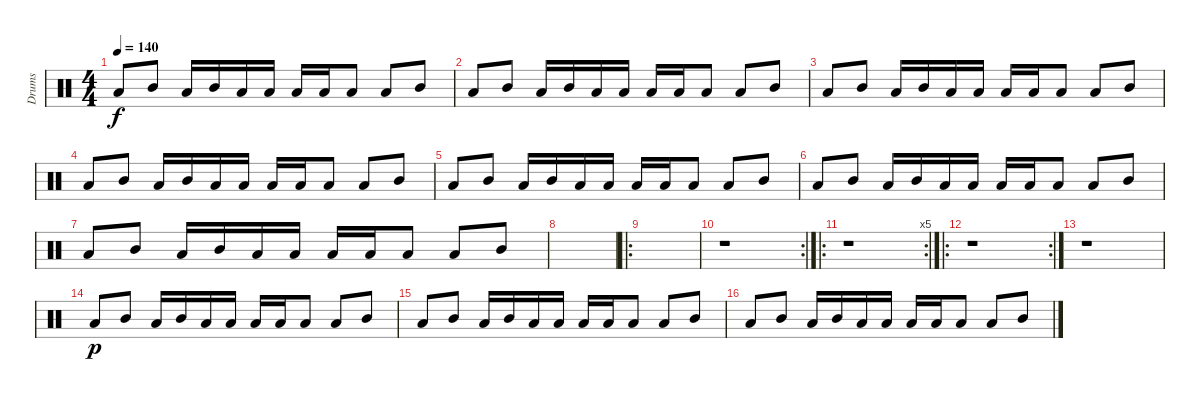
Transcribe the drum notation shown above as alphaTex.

\track ("Drums" "Drums") {instrument percussion}
\staff {score}
\articulation defaults
\ts (4 4)
\tempo 140
\clef neutral
\ks c "Low Tom (hit)".8{dy f} "Mid Tom (hit)".8 "Low Tom (hit)".16 "Mid Tom (hit)".16 "Low Tom (hit)".16 "Low Tom (hit)".16 "Low Tom (hit)".16 "Low Tom (hit)".16 "Low Tom (hit)".8 "Low Tom (hit)".8 "Mid Tom (hit)".8
|
"Low Tom (hit)".8 "Mid Tom (hit)".8 "Low Tom (hit)".16 "Mid Tom (hit)".16 "Low Tom (hit)".16 "Low Tom (hit)".16 "Low Tom (hit)".16 "Low Tom (hit)".16 "Low Tom (hit)".8 "Low Tom (hit)".8 "Mid Tom (hit)".8 |
"Low Tom (hit)".8 "Mid Tom (hit)".8 "Low Tom (hit)".16 "Mid Tom (hit)".16 "Low Tom (hit)".16 "Low Tom (hit)".16 "Low Tom (hit)".16 "Low Tom (hit)".16 "Low Tom (hit)".8 "Low Tom (hit)".8 "Mid Tom (hit)".8 |
"Low Tom (hit)".8 "Mid Tom (hit)".8 "Low Tom (hit)".16 "Mid Tom (hit)".16 "Low Tom (hit)".16 "Low Tom (hit)".16 "Low Tom (hit)".16 "Low Tom (hit)".16 "Low Tom (hit)".8 "Low Tom (hit)".8 "Mid Tom (hit)".8 |
"Low Tom (hit)".8 "Mid Tom (hit)".8 "Low Tom (hit)".16 "Mid Tom (hit)".16 "Low Tom (hit)".16 "Low Tom (hit)".16 "Low Tom (hit)".16 "Low Tom (hit)".16 "Low Tom (hit)".8 "Low Tom (hit)".8 "Mid Tom (hit)".8 |
"Low Tom (hit)".8 "Mid Tom (hit)".8 "Low Tom (hit)".16 "Mid Tom (hit)".16 "Low Tom (hit)".16 "Low Tom (hit)".16 "Low Tom (hit)".16 "Low Tom (hit)".16 "Low Tom (hit)".8 "Low Tom (hit)".8 "Mid Tom (hit)".8 |
"Low Tom (hit)".8 "Mid Tom (hit)".8 "Low Tom (hit)".16 "Mid Tom (hit)".16 "Low Tom (hit)".16 "Low Tom (hit)".16 "Low Tom (hit)".16 "Low Tom (hit)".16 "Low Tom (hit)".8 "Low Tom (hit)".8 "Mid Tom (hit)".8 |
|
\ro
|
\rc 2
r.1 |
\ro
\rc 5
r.1 |
\ro
\rc 2
r.1 |
r.1 |
"Low Tom (hit)".8{dy p} "Mid Tom (hit)".8 "Low Tom (hit)".16 "Mid Tom (hit)".16 "Low Tom (hit)".16 "Low Tom (hit)".16 "Low Tom (hit)".16 "Low Tom (hit)".16 "Low Tom (hit)".8 "Low Tom (hit)".8 "Mid Tom (hit)".8 |
"Low Tom (hit)".8 "Mid Tom (hit)".8 "Low Tom (hit)".16 "Mid Tom (hit)".16 "Low Tom (hit)".16 "Low Tom (hit)".16 "Low Tom (hit)".16 "Low Tom (hit)".16 "Low Tom (hit)".8 "Low Tom (hit)".8 "Mid Tom (hit)".8 |
"Low Tom (hit)".8 "Mid Tom (hit)".8 "Low Tom (hit)".16 "Mid Tom (hit)".16 "Low Tom (hit)".16 "Low Tom (hit)".16 "Low Tom (hit)".16 "Low Tom (hit)".16 "Low Tom (hit)".8 "Low Tom (hit)".8 "Mid Tom (hit)".8
